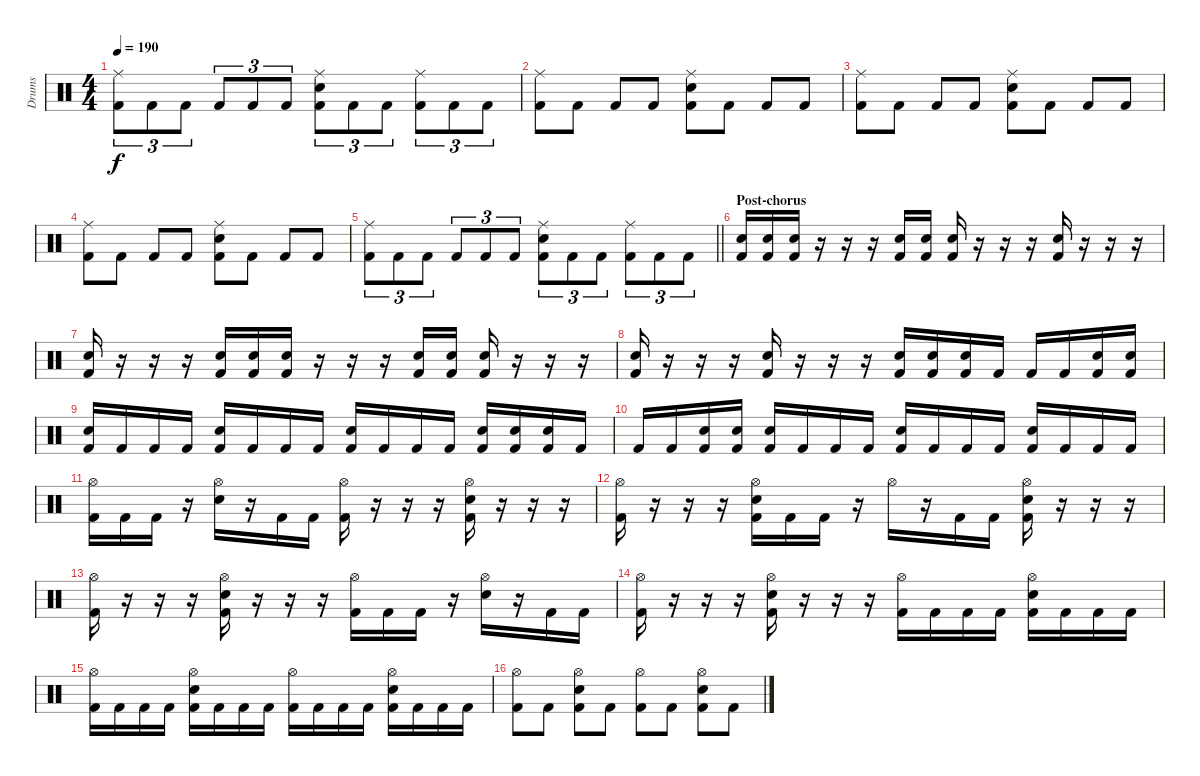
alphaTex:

\track ("Drums" "Drums") {instrument percussion}
\staff {score}
\articulation defaults
\ts (4 4)
\tempo 190
\clef neutral
\ks c
("Ride (middle)" "Kick (hit) 2").8{tu (3 2) dy f} "Kick (hit) 2".8{tu (3 2)} "Kick (hit) 2".8{tu (3 2)} "Kick (hit) 2".8{tu (3 2)} "Kick (hit) 2".8{tu (3 2)} "Kick (hit) 2".8{tu (3 2)} ("Ride (middle)" "Snare (hit) 2" "Kick (hit) 2").8{tu (3 2)} "Kick (hit) 2".8{tu (3 2)} "Kick (hit) 2".8{tu (3 2)} ("Ride (middle)" "Kick (hit) 2").8{tu (3 2)} "Kick (hit) 2".8{tu (3 2)} "Kick (hit) 2".8{tu (3 2)} |
("Ride (middle)" "Kick (hit) 2").8 "Kick (hit) 2".8 "Kick (hit) 2".8 "Kick (hit) 2".8 ("Ride (middle)" "Snare (hit) 2" "Kick (hit) 2").8 "Kick (hit) 2".8 "Kick (hit) 2".8 "Kick (hit) 2".8 |
("Ride (middle)" "Kick (hit) 2").8 "Kick (hit) 2".8 "Kick (hit) 2".8 "Kick (hit) 2".8 ("Ride (middle)" "Snare (hit) 2" "Kick (hit) 2").8 "Kick (hit) 2".8 "Kick (hit) 2".8 "Kick (hit) 2".8 |
("Ride (middle)" "Kick (hit) 2").8 "Kick (hit) 2".8 "Kick (hit) 2".8 "Kick (hit) 2".8 ("Ride (middle)" "Snare (hit) 2" "Kick (hit) 2").8 "Kick (hit) 2".8 "Kick (hit) 2".8 "Kick (hit) 2".8 |
\barLineRight lightlight
("Ride (middle)" "Kick (hit) 2").8{tu (3 2)} "Kick (hit) 2".8{tu (3 2)} "Kick (hit) 2".8{tu (3 2)} "Kick (hit) 2".8{tu (3 2)} "Kick (hit) 2".8{tu (3 2)} "Kick (hit) 2".8{tu (3 2)} ("Ride (middle)" "Snare (hit) 2" "Kick (hit) 2").8{tu (3 2)} "Kick (hit) 2".8{tu (3 2)} "Kick (hit) 2".8{tu (3 2)} ("Ride (middle)" "Kick (hit) 2").8{tu (3 2)} "Kick (hit) 2".8{tu (3 2)} "Kick (hit) 2".8{tu (3 2)} |
\section ("" "Post-chorus")
("Snare (hit) 2" "Kick (hit) 2").16 ("Snare (hit) 2" "Kick (hit) 2").16 ("Snare (hit) 2" "Kick (hit) 2").16 r.16 r.16 r.16 ("Snare (hit) 2" "Kick (hit) 2").16 ("Snare (hit) 2" "Kick (hit) 2").16 ("Snare (hit) 2" "Kick (hit) 2").16 r.16 r.16 r.16 ("Snare (hit) 2" "Kick (hit) 2").16 r.16 r.16 r.16 |
("Snare (hit) 2" "Kick (hit) 2").16 r.16 r.16 r.16 ("Snare (hit) 2" "Kick (hit) 2").16 ("Snare (hit) 2" "Kick (hit) 2").16 ("Snare (hit) 2" "Kick (hit) 2").16 r.16 r.16 r.16 ("Snare (hit) 2" "Kick (hit) 2").16 ("Snare (hit) 2" "Kick (hit) 2").16 ("Snare (hit) 2" "Kick (hit) 2").16 r.16 r.16 r.16 |
("Snare (hit) 2" "Kick (hit) 2").16 r.16 r.16 r.16 ("Snare (hit) 2" "Kick (hit) 2").16 r.16 r.16 r.16 ("Snare (hit) 2" "Kick (hit) 2").16 ("Snare (hit) 2" "Kick (hit) 2").16 ("Snare (hit) 2" "Kick (hit) 2").16 "Kick (hit) 2".16 "Kick (hit) 2".16 "Kick (hit) 2".16 ("Snare (hit) 2" "Kick (hit) 2").16 ("Snare (hit) 2" "Kick (hit) 2").16 |
("Snare (hit) 2" "Kick (hit) 2").16 "Kick (hit) 2".16 "Kick (hit) 2".16 "Kick (hit) 2".16 ("Snare (hit) 2" "Kick (hit) 2").16 "Kick (hit) 2".16 "Kick (hit) 2".16 "Kick (hit) 2".16 ("Snare (hit) 2" "Kick (hit) 2").16 "Kick (hit) 2".16 "Kick (hit) 2".16 "Kick (hit) 2".16 ("Snare (hit) 2" "Kick (hit) 2").16 ("Snare (hit) 2" "Kick (hit) 2").16 ("Snare (hit) 2" "Kick (hit) 2").16 "Kick (hit) 2".16 |
"Kick (hit) 2".16 "Kick (hit) 2".16 ("Snare (hit) 2" "Kick (hit) 2").16 ("Snare (hit) 2" "Kick (hit) 2").16 ("Snare (hit) 2" "Kick (hit) 2").16 "Kick (hit) 2".16 "Kick (hit) 2".16 "Kick (hit) 2".16 ("Snare (hit) 2" "Kick (hit) 2").16 "Kick (hit) 2".16 "Kick (hit) 2".16 "Kick (hit) 2".16 ("Snare (hit) 2" "Kick (hit) 2").16 "Kick (hit) 2".16 "Kick (hit) 2".16 "Kick (hit) 2".16 |
("Hi-Hat (open)" "Kick (hit) 2").16 "Kick (hit) 2".16 "Kick (hit) 2".16 r.16 ("Hi-Hat (open)" "Snare (hit) 2").16 r.16 "Kick (hit) 2".16 "Kick (hit) 2".16 ("Hi-Hat (open)" "Kick (hit) 2").16 r.16 r.16 r.16 ("Hi-Hat (open)" "Snare (hit) 2" "Kick (hit) 2").16 r.16 r.16 r.16 |
("Hi-Hat (open)" "Kick (hit) 2").16 r.16 r.16 r.16 ("Hi-Hat (open)" "Snare (hit) 2" "Kick (hit) 2").16 "Kick (hit) 2".16 "Kick (hit) 2".16 r.16 "Hi-Hat (open)".16 r.16 "Kick (hit) 2".16 "Kick (hit) 2".16 ("Hi-Hat (open)" "Snare (hit) 2" "Kick (hit) 2").16 r.16 r.16 r.16 |
("Hi-Hat (open)" "Kick (hit) 2").16 r.16 r.16 r.16 ("Hi-Hat (open)" "Snare (hit) 2" "Kick (hit) 2").16 r.16 r.16 r.16 ("Hi-Hat (open)" "Kick (hit) 2").16 "Kick (hit) 2".16 "Kick (hit) 2".16 r.16 ("Hi-Hat (open)" "Snare (hit) 2").16 r.16 "Kick (hit) 2".16 "Kick (hit) 2".16 |
("Hi-Hat (open)" "Kick (hit) 2").16 r.16 r.16 r.16 ("Hi-Hat (open)" "Snare (hit) 2" "Kick (hit) 2").16 r.16 r.16 r.16 ("Hi-Hat (open)" "Kick (hit) 2").16 "Kick (hit) 2".16 "Kick (hit) 2".16 "Kick (hit) 2".16 ("Hi-Hat (open)" "Snare (hit) 2" "Kick (hit) 2").16 "Kick (hit) 2".16 "Kick (hit) 2".16 "Kick (hit) 2".16 |
("Hi-Hat (open)" "Kick (hit) 2").16 "Kick (hit) 2".16 "Kick (hit) 2".16 "Kick (hit) 2".16 ("Hi-Hat (open)" "Snare (hit) 2" "Kick (hit) 2").16 "Kick (hit) 2".16 "Kick (hit) 2".16 "Kick (hit) 2".16 ("Hi-Hat (open)" "Kick (hit) 2").16 "Kick (hit) 2".16 "Kick (hit) 2".16 "Kick (hit) 2".16 ("Hi-Hat (open)" "Snare (hit) 2" "Kick (hit) 2").16 "Kick (hit) 2".16 "Kick (hit) 2".16 "Kick (hit) 2".16 |
("Hi-Hat (open)" "Kick (hit) 2").8 "Kick (hit) 2".8 ("Hi-Hat (open)" "Snare (hit) 2" "Kick (hit) 2").8 "Kick (hit) 2".8 ("Hi-Hat (open)" "Kick (hit) 2").8 "Kick (hit) 2".8 ("Hi-Hat (open)" "Snare (hit) 2" "Kick (hit) 2").8 "Kick (hit) 2".8
